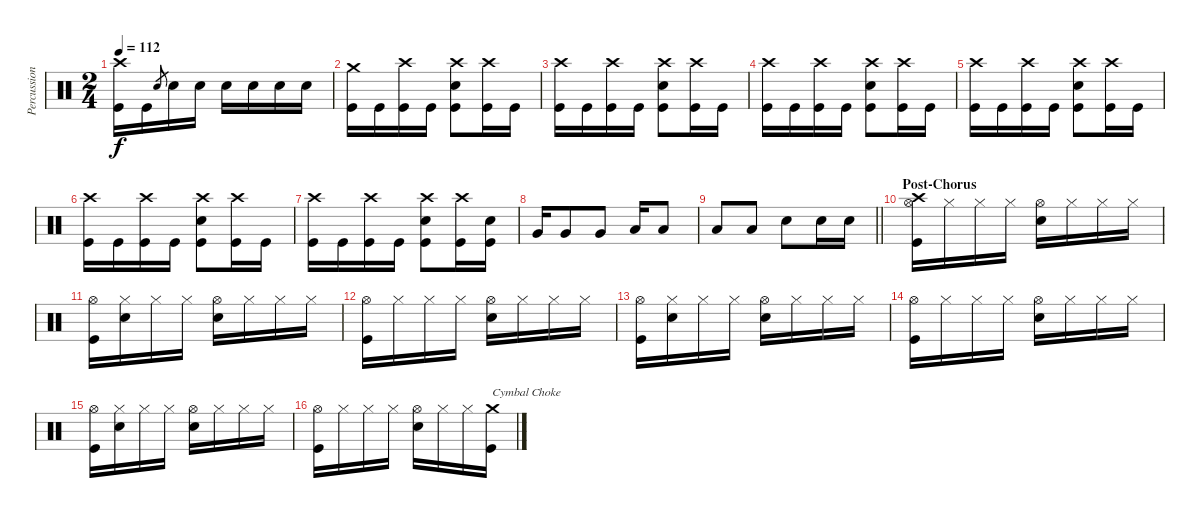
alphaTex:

\track ("Percussion" "Percussion") {instrument percussion}
\staff {score}
\articulation defaults
\ts (2 4)
\tempo 112
\clef neutral
\ks c
("Crash high (hit)" "Kick (hit)").16{dy f} "Kick (hit)".16 "Electric Snare (hit)".8{gr} "Electric Snare (hit)".16 "Electric Snare (hit)".16 "Electric Snare (hit)".16 "Electric Snare (hit)".16 "Electric Snare (hit)".16 "Electric Snare (hit)".16 |
("Crash medium (hit)" "Kick (hit)").16 "Kick (hit)".16 ("Crash high (hit)" "Kick (hit)").16 "Kick (hit)".16 ("Crash high (hit)" "Electric Snare (hit)" "Kick (hit)").8 ("Crash high (hit)" "Kick (hit)").16 "Kick (hit)".16 |
("Crash high (hit)" "Kick (hit)").16 "Kick (hit)".16 ("Crash high (hit)" "Kick (hit)").16 "Kick (hit)".16 ("Crash high (hit)" "Electric Snare (hit)" "Kick (hit)").8 ("Crash high (hit)" "Kick (hit)").16 "Kick (hit)".16 |
("Crash high (hit)" "Kick (hit)").16 "Kick (hit)".16 ("Crash high (hit)" "Kick (hit)").16 "Kick (hit)".16 ("Crash high (hit)" "Electric Snare (hit)" "Kick (hit)").8 ("Crash high (hit)" "Kick (hit)").16 "Kick (hit)".16 |
("Crash high (hit)" "Kick (hit)").16 "Kick (hit)".16 ("Crash high (hit)" "Kick (hit)").16 "Kick (hit)".16 ("Crash high (hit)" "Electric Snare (hit)" "Kick (hit)").8 ("Crash high (hit)" "Kick (hit)").16 "Kick (hit)".16 |
("Crash high (hit)" "Kick (hit)").16 "Kick (hit)".16 ("Crash high (hit)" "Kick (hit)").16 "Kick (hit)".16 ("Crash high (hit)" "Electric Snare (hit)" "Kick (hit)").8 ("Crash high (hit)" "Kick (hit)").16 "Kick (hit)".16 |
("Crash high (hit)" "Kick (hit)").16 "Kick (hit)".16 ("Crash high (hit)" "Kick (hit)").16 "Kick (hit)".16 ("Crash high (hit)" "Electric Snare (hit)" "Kick (hit)").8 ("Crash high (hit)" "Kick (hit)").16 ("Electric Snare (hit)" "Kick (hit)").16 |
"Very Low Tom (hit)".16 "Very Low Tom (hit)".8 "Very Low Tom (hit)".8 "Low Floor Tom (hit)".16 "Low Floor Tom (hit)".8 |
\barLineRight lightlight "Low Floor Tom (hit)".8 "Low Floor Tom (hit)".8 "Electric Snare (hit)".8 "Electric Snare (hit)".16 "Electric Snare (hit)".16
|
\section ("" "Post-Chorus")
("Crash high (hit)" "Hi-Hat (open)" "Kick (hit)").16 "Hi-Hat (closed)".16 "Hi-Hat (closed)".16 "Hi-Hat (closed)".16 ("Hi-Hat (open)" "Electric Snare (hit)").16 "Hi-Hat (closed)".16 "Hi-Hat (closed)".16 "Hi-Hat (closed)".16 |
("Hi-Hat (open)" "Kick (hit)").16 ("Hi-Hat (closed)" "Electric Snare (hit)").16 "Hi-Hat (closed)".16 "Hi-Hat (closed)".16 ("Hi-Hat (open)" "Electric Snare (hit)").16 "Hi-Hat (closed)".16 "Hi-Hat (closed)".16 "Hi-Hat (closed)".16 |
("Hi-Hat (open)" "Kick (hit)").16 "Hi-Hat (closed)".16 "Hi-Hat (closed)".16 "Hi-Hat (closed)".16 ("Hi-Hat (open)" "Electric Snare (hit)").16 "Hi-Hat (closed)".16 "Hi-Hat (closed)".16 "Hi-Hat (closed)".16 |
("Hi-Hat (open)" "Kick (hit)").16 ("Hi-Hat (closed)" "Electric Snare (hit)").16 "Hi-Hat (closed)".16 "Hi-Hat (closed)".16 ("Hi-Hat (open)" "Electric Snare (hit)").16 "Hi-Hat (closed)".16 "Hi-Hat (closed)".16 "Hi-Hat (closed)".16 |
("Hi-Hat (open)" "Kick (hit)").16 "Hi-Hat (closed)".16 "Hi-Hat (closed)".16 "Hi-Hat (closed)".16 ("Hi-Hat (open)" "Electric Snare (hit)").16 "Hi-Hat (closed)".16 "Hi-Hat (closed)".16 "Hi-Hat (closed)".16 |
("Hi-Hat (open)" "Kick (hit)").16 ("Hi-Hat (closed)" "Electric Snare (hit)").16 "Hi-Hat (closed)".16 "Hi-Hat (closed)".16 ("Hi-Hat (open)" "Electric Snare (hit)").16 "Hi-Hat (closed)".16 "Hi-Hat (closed)".16 "Hi-Hat (closed)".16 |
("Hi-Hat (open)" "Kick (hit)").16 "Hi-Hat (closed)".16 "Hi-Hat (closed)".16 "Hi-Hat (closed)".16 ("Hi-Hat (open)" "Electric Snare (hit)").16 "Hi-Hat (closed)".16 "Hi-Hat (closed)".16 ("Crash medium (hit)" "Kick (hit)").16{txt "Cymbal Choke"}
